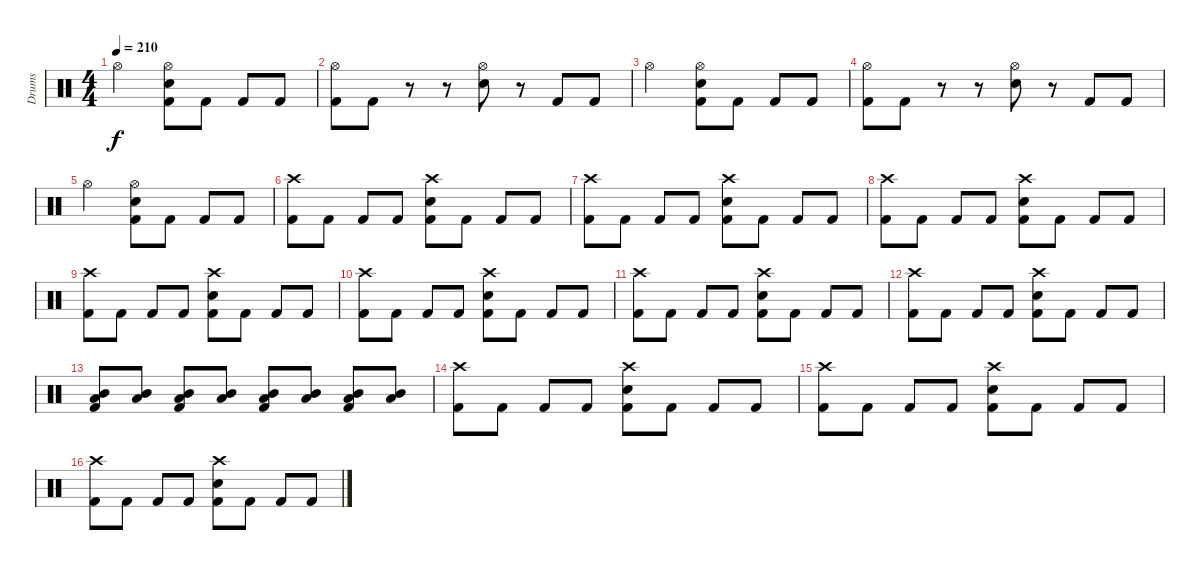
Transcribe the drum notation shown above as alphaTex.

\track ("Drums" "Drums") {instrument percussion}
\staff {score}
\articulation defaults
\ts (4 4)
\tempo 210
\clef neutral
\ks c "Hi-Hat (open)".2{dy f}
("Hi-Hat (open)" "Electric Snare (hit)" "Kick (hit) 2").8 "Kick (hit) 2".8 "Kick (hit) 2".8 "Kick (hit) 2".8 |
("Hi-Hat (open)" "Kick (hit) 2").8 "Kick (hit) 2".8 r.8 r.8 ("Hi-Hat (open)" "Electric Snare (hit)").8 r.8 "Kick (hit) 2".8 "Kick (hit) 2".8 |
"Hi-Hat (open)".2 ("Hi-Hat (open)" "Electric Snare (hit)" "Kick (hit) 2").8 "Kick (hit) 2".8 "Kick (hit) 2".8 "Kick (hit) 2".8 |
("Hi-Hat (open)" "Kick (hit) 2").8 "Kick (hit) 2".8 r.8 r.8 ("Hi-Hat (open)" "Electric Snare (hit)").8 r.8 "Kick (hit) 2".8 "Kick (hit) 2".8 |
"Hi-Hat (open)".2 ("Hi-Hat (open)" "Electric Snare (hit)" "Kick (hit) 2").8 "Kick (hit) 2".8 "Kick (hit) 2".8 "Kick (hit) 2".8 |
("Crash high (hit)" "Kick (hit) 2").8 "Kick (hit) 2".8 "Kick (hit) 2".8 "Kick (hit) 2".8 ("Crash high (hit)" "Electric Snare (hit)" "Kick (hit) 2").8 "Kick (hit) 2".8 "Kick (hit) 2".8 "Kick (hit) 2".8 |
("Crash high (hit)" "Kick (hit) 2").8 "Kick (hit) 2".8 "Kick (hit) 2".8 "Kick (hit) 2".8 ("Crash high (hit)" "Electric Snare (hit)" "Kick (hit) 2").8 "Kick (hit) 2".8 "Kick (hit) 2".8 "Kick (hit) 2".8 |
("Crash high (hit)" "Kick (hit) 2").8 "Kick (hit) 2".8 "Kick (hit) 2".8 "Kick (hit) 2".8 ("Crash high (hit)" "Electric Snare (hit)" "Kick (hit) 2").8 "Kick (hit) 2".8 "Kick (hit) 2".8 "Kick (hit) 2".8 |
("Crash high (hit)" "Kick (hit) 2").8 "Kick (hit) 2".8 "Kick (hit) 2".8 "Kick (hit) 2".8 ("Crash high (hit)" "Electric Snare (hit)" "Kick (hit) 2").8 "Kick (hit) 2".8 "Kick (hit) 2".8 "Kick (hit) 2".8 |
("Crash high (hit)" "Kick (hit) 2").8 "Kick (hit) 2".8 "Kick (hit) 2".8 "Kick (hit) 2".8 ("Crash high (hit)" "Electric Snare (hit)" "Kick (hit) 2").8 "Kick (hit) 2".8 "Kick (hit) 2".8 "Kick (hit) 2".8 |
("Crash high (hit)" "Kick (hit) 2").8 "Kick (hit) 2".8 "Kick (hit) 2".8 "Kick (hit) 2".8 ("Crash high (hit)" "Electric Snare (hit)" "Kick (hit) 2").8 "Kick (hit) 2".8 "Kick (hit) 2".8 "Kick (hit) 2".8 |
("Crash high (hit)" "Kick (hit) 2").8 "Kick (hit) 2".8 "Kick (hit) 2".8 "Kick (hit) 2".8 ("Crash high (hit)" "Electric Snare (hit)" "Kick (hit) 2").8 "Kick (hit) 2".8 "Kick (hit) 2".8 "Kick (hit) 2".8 |
("Mid Tom (hit)" "Low Floor Tom (hit)" "Kick (hit) 2").8 ("Mid Tom (hit)" "Low Floor Tom (hit)").8 ("Mid Tom (hit)" "Low Floor Tom (hit)" "Kick (hit) 2").8 ("Mid Tom (hit)" "Low Floor Tom (hit)").8 ("Mid Tom (hit)" "Low Floor Tom (hit)" "Kick (hit) 2").8 ("Mid Tom (hit)" "Low Floor Tom (hit)").8 ("Mid Tom (hit)" "Low Floor Tom (hit)" "Kick (hit) 2").8 ("Mid Tom (hit)" "Low Floor Tom (hit)").8 |
("Crash high (hit)" "Kick (hit) 2").8 "Kick (hit) 2".8 "Kick (hit) 2".8 "Kick (hit) 2".8 ("Crash high (hit)" "Electric Snare (hit)" "Kick (hit) 2").8 "Kick (hit) 2".8 "Kick (hit) 2".8 "Kick (hit) 2".8 |
("Crash high (hit)" "Kick (hit) 2").8 "Kick (hit) 2".8 "Kick (hit) 2".8 "Kick (hit) 2".8 ("Crash high (hit)" "Electric Snare (hit)" "Kick (hit) 2").8 "Kick (hit) 2".8 "Kick (hit) 2".8 "Kick (hit) 2".8 |
("Crash high (hit)" "Kick (hit) 2").8 "Kick (hit) 2".8 "Kick (hit) 2".8 "Kick (hit) 2".8 ("Crash high (hit)" "Electric Snare (hit)" "Kick (hit) 2").8 "Kick (hit) 2".8 "Kick (hit) 2".8 "Kick (hit) 2".8
